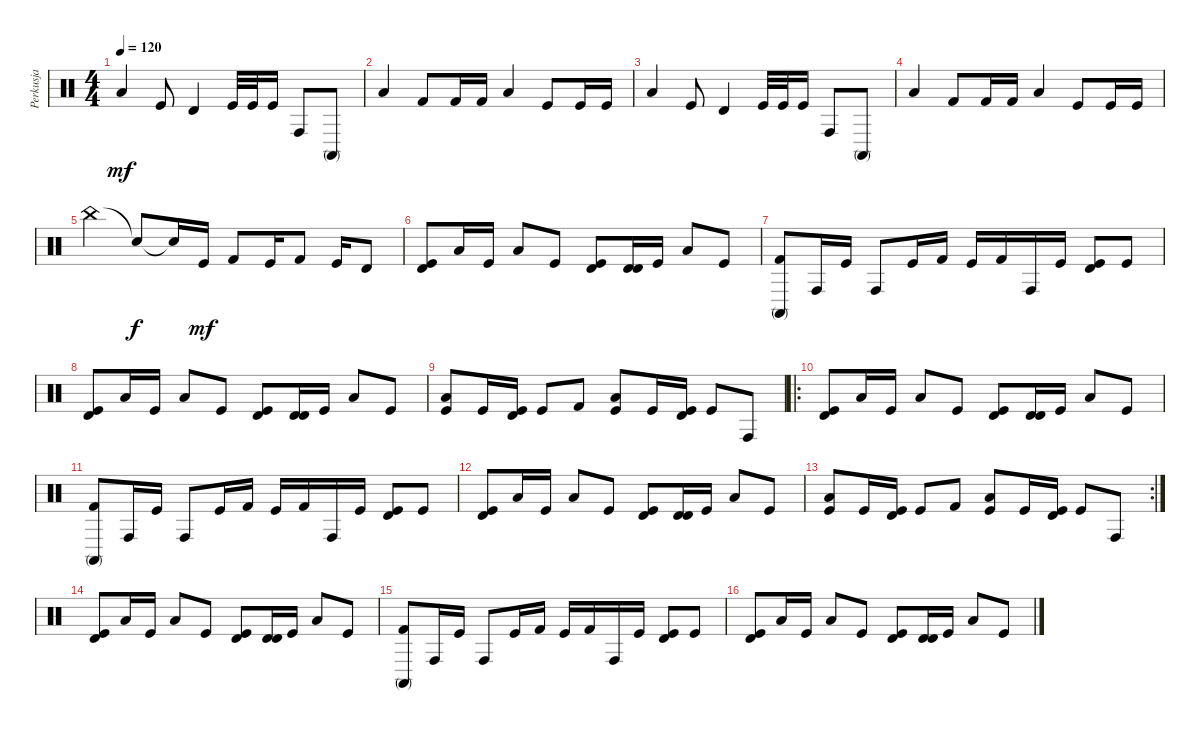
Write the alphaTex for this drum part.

\track ("Perkusja" "Perkusja") {instrument percussion}
\staff {score}
\articulation defaults
\ts (4 4)
\tempo 120
\clef neutral
\ks c "Low Tom (hit)".4{dy mf} "Kick (hit)".8 "Timbale high (hit)".4 "Kick (hit)".32 "Kick (hit)".32 "Kick (hit)".16 "Conga high (hit)".8 "Conga high (mute)".8
|
"Low Tom (hit)".4 "Kick (hit) 2".8 "Kick (hit) 2".16 "Kick (hit) 2".16 "Low Tom (hit)".4 "Kick (hit)".8 "Kick (hit)".16 "Kick (hit)".16 |
"Low Tom (hit)".4 "Kick (hit)".8 "Timbale high (hit)".4 "Kick (hit)".32 "Kick (hit)".32 "Kick (hit)".16 "Conga high (hit)".8 "Conga high (mute)".8 |
"Low Tom (hit)".4 "Kick (hit) 2".8 "Kick (hit) 2".16 "Kick (hit) 2".16 "Low Tom (hit)".4 "Kick (hit)".8 "Kick (hit)".16 "Kick (hit)".16 |
"China (hit)".4 "Snare (hit)"{t}.8{dy f} "Snare (hit)"{t}.16 "Kick (hit)".16{dy mf} "Kick (hit) 2".8 "Kick (hit)".16 "Kick (hit) 2".8 "Kick (hit)".16 "Timbale high (hit)".8 |
("Kick (hit)" "Timbale high (hit)").8 "Low Tom (hit)".16 "Kick (hit)".16 "Low Tom (hit)".8 "Kick (hit)".8 ("Kick (hit)" "Timbale high (hit)").8 ("Timbale high (hit)" "Timbale high (hit)").16 "Kick (hit)".16 "Low Tom (hit)".8 "Kick (hit)".8 |
("Kick (hit) 2" "Conga high (mute)").8 "Conga high (hit)".16 "Kick (hit)".16 "Conga high (hit)".8 "Kick (hit)".16 "Kick (hit) 2".16 "Kick (hit)".16 "Kick (hit) 2".16 "Conga high (hit)".16 "Kick (hit)".16 ("Kick (hit)" "Timbale high (hit)").8 "Kick (hit)".8 |
("Kick (hit)" "Timbale high (hit)").8 "Low Tom (hit)".16 "Kick (hit)".16 "Low Tom (hit)".8 "Kick (hit)".8 ("Kick (hit)" "Timbale high (hit)").8 ("Timbale high (hit)" "Timbale high (hit)").16 "Kick (hit)".16 "Low Tom (hit)".8 "Kick (hit)".8 |
("Low Tom (hit)" "Kick (hit)").8 "Kick (hit)".16 ("Timbale high (hit)" "Kick (hit)").16 "Kick (hit)".8 "Kick (hit) 2".8 ("Low Tom (hit)" "Kick (hit)").8 "Kick (hit)".16 ("Timbale high (hit)" "Kick (hit)").16 "Kick (hit)".8 "Conga high (hit)".8 |
\ro
("Kick (hit)" "Timbale high (hit)").8 "Low Tom (hit)".16 "Kick (hit)".16 "Low Tom (hit)".8 "Kick (hit)".8 ("Kick (hit)" "Timbale high (hit)").8 ("Timbale high (hit)" "Timbale high (hit)").16 "Kick (hit)".16 "Low Tom (hit)".8 "Kick (hit)".8 |
("Kick (hit) 2" "Conga high (mute)").8 "Conga high (hit)".16 "Kick (hit)".16 "Conga high (hit)".8 "Kick (hit)".16 "Kick (hit) 2".16 "Kick (hit)".16 "Kick (hit) 2".16 "Conga high (hit)".16 "Kick (hit)".16 ("Kick (hit)" "Timbale high (hit)").8 "Kick (hit)".8 |
("Kick (hit)" "Timbale high (hit)").8 "Low Tom (hit)".16 "Kick (hit)".16 "Low Tom (hit)".8 "Kick (hit)".8 ("Kick (hit)" "Timbale high (hit)").8 ("Timbale high (hit)" "Timbale high (hit)").16 "Kick (hit)".16 "Low Tom (hit)".8 "Kick (hit)".8 |
\rc 2
("Low Tom (hit)" "Kick (hit)").8 "Kick (hit)".16 ("Timbale high (hit)" "Kick (hit)").16 "Kick (hit)".8 "Kick (hit) 2".8 ("Low Tom (hit)" "Kick (hit)").8 "Kick (hit)".16 ("Timbale high (hit)" "Kick (hit)").16 "Kick (hit)".8 "Conga high (hit)".8 |
("Kick (hit)" "Timbale high (hit)").8 "Low Tom (hit)".16 "Kick (hit)".16 "Low Tom (hit)".8 "Kick (hit)".8 ("Kick (hit)" "Timbale high (hit)").8 ("Timbale high (hit)" "Timbale high (hit)").16 "Kick (hit)".16 "Low Tom (hit)".8 "Kick (hit)".8 |
("Kick (hit) 2" "Conga high (mute)").8 "Conga high (hit)".16 "Kick (hit)".16 "Conga high (hit)".8 "Kick (hit)".16 "Kick (hit) 2".16 "Kick (hit)".16 "Kick (hit) 2".16 "Conga high (hit)".16 "Kick (hit)".16 ("Kick (hit)" "Timbale high (hit)").8 "Kick (hit)".8 |
("Kick (hit)" "Timbale high (hit)").8 "Low Tom (hit)".16 "Kick (hit)".16 "Low Tom (hit)".8 "Kick (hit)".8 ("Kick (hit)" "Timbale high (hit)").8 ("Timbale high (hit)" "Timbale high (hit)").16 "Kick (hit)".16 "Low Tom (hit)".8 "Kick (hit)".8
